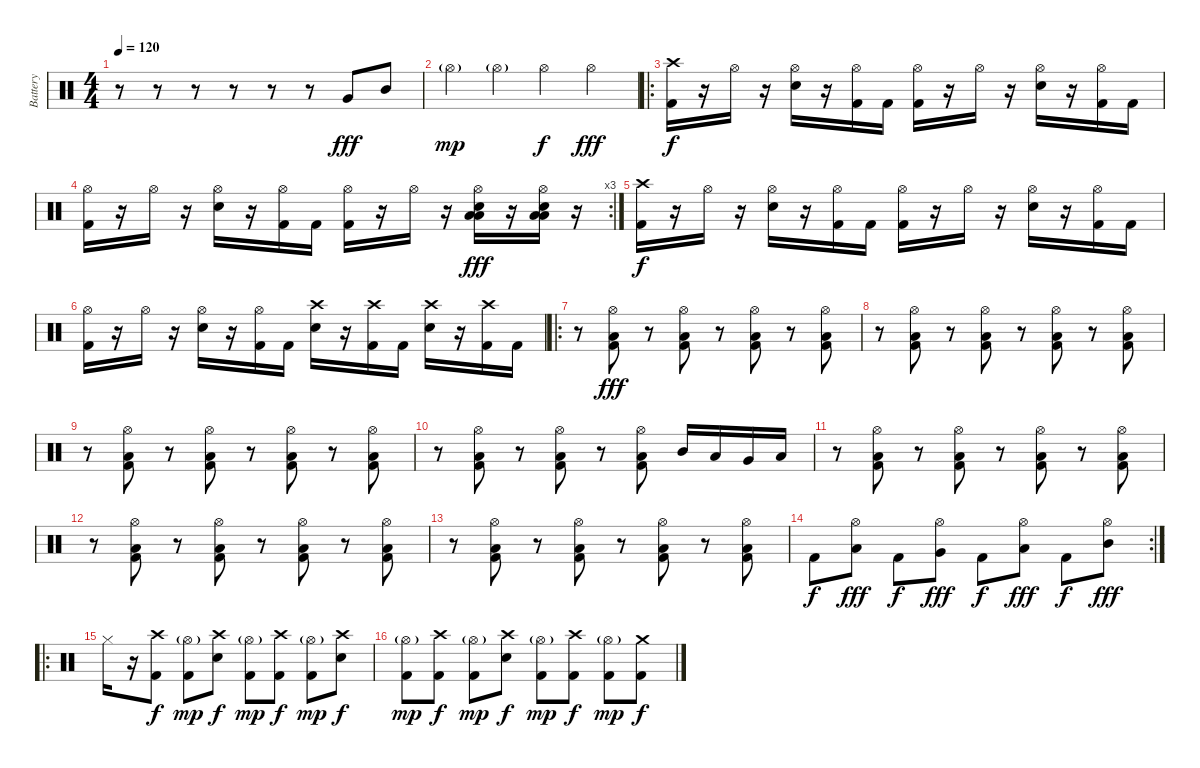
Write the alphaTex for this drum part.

\track ("Battery" "Battery") {instrument percussion}
\staff {score}
\articulation defaults
\ts (4 4)
\tempo 120
\clef neutral
\ks c
r.8{dy fff} r.8 r.8 r.8 r.8 r.8 "Very Low Tom (hit)".8 "Mid Tom (hit)".8 |
"Hi-Hat (open)"{g}.4{dy mp} "Hi-Hat (open)"{g}.4 "Hi-Hat (open)".4{dy f} "Hi-Hat (open)".4{dy fff} |
\ro
("Crash high (hit)" "Kick (hit) 2").16{dy f} r.16 "Hi-Hat (open)".16 r.16 ("Hi-Hat (open)" "Electric Snare (hit)").16 r.16 ("Hi-Hat (open)" "Kick (hit) 2").16 "Kick (hit) 2".16 ("Hi-Hat (open)" "Kick (hit) 2").16 r.16 "Hi-Hat (open)".16 r.16 ("Hi-Hat (open)" "Electric Snare (hit)").16 r.16 ("Hi-Hat (open)" "Kick (hit) 2").16 "Kick (hit) 2".16 |
\rc 3
("Hi-Hat (open)" "Kick (hit) 2").16 r.16 "Hi-Hat (open)".16 r.16 ("Hi-Hat (open)" "Electric Snare (hit)").16 r.16 ("Hi-Hat (open)" "Kick (hit) 2").16 "Kick (hit) 2".16 ("Hi-Hat (open)" "Kick (hit) 2").16 r.16 "Hi-Hat (open)".16 r.16 ("Hi-Hat (open)" "Low Tom (hit)" "Low Floor Tom (hit)" "Electric Snare (hit)").16{dy fff} r.16 ("Hi-Hat (open)" "Low Tom (hit)" "Low Floor Tom (hit)" "Electric Snare (hit)").16 r.16 |
("Crash high (hit)" "Kick (hit) 2").16{dy f} r.16 "Hi-Hat (open)".16 r.16 ("Hi-Hat (open)" "Electric Snare (hit)").16 r.16 ("Hi-Hat (open)" "Kick (hit) 2").16 "Kick (hit) 2".16 ("Hi-Hat (open)" "Kick (hit) 2").16 r.16 "Hi-Hat (open)".16 r.16 ("Hi-Hat (open)" "Electric Snare (hit)").16 r.16 ("Hi-Hat (open)" "Kick (hit) 2").16 "Kick (hit) 2".16 |
("Hi-Hat (open)" "Kick (hit) 2").16 r.16 "Hi-Hat (open)".16 r.16 ("Hi-Hat (open)" "Electric Snare (hit)").16 r.16 ("Hi-Hat (open)" "Kick (hit) 2").16 "Kick (hit) 2".16 ("Crash high (hit)" "Electric Snare (hit)").16 r.16 ("Crash high (hit)" "Kick (hit) 2").16 "Kick (hit) 2".16 ("Crash high (hit)" "Electric Snare (hit)").16 r.16 ("Crash high (hit)" "Kick (hit) 2").16 "Kick (hit) 2".16 |
\ro
r.8 ("Kick (hit) 2" "Low Floor Tom (hit)" "Hi-Hat (open)").8{dy fff} r.8 ("Kick (hit) 2" "Low Floor Tom (hit)" "Hi-Hat (open)").8 r.8 ("Kick (hit) 2" "Low Floor Tom (hit)" "Hi-Hat (open)").8 r.8 ("Kick (hit) 2" "Low Floor Tom (hit)" "Hi-Hat (open)").8 |
r.8 ("Kick (hit) 2" "Low Floor Tom (hit)" "Hi-Hat (open)").8 r.8 ("Kick (hit) 2" "Low Floor Tom (hit)" "Hi-Hat (open)").8 r.8 ("Kick (hit) 2" "Low Floor Tom (hit)" "Hi-Hat (open)").8 r.8 ("Kick (hit) 2" "Low Floor Tom (hit)" "Hi-Hat (open)").8 |
r.8 ("Kick (hit) 2" "Low Floor Tom (hit)" "Hi-Hat (open)").8 r.8 ("Kick (hit) 2" "Low Floor Tom (hit)" "Hi-Hat (open)").8 r.8 ("Kick (hit) 2" "Low Floor Tom (hit)" "Hi-Hat (open)").8 r.8 ("Kick (hit) 2" "Low Floor Tom (hit)" "Hi-Hat (open)").8 |
r.8 ("Kick (hit) 2" "Low Floor Tom (hit)" "Hi-Hat (open)").8 r.8 ("Kick (hit) 2" "Low Floor Tom (hit)" "Hi-Hat (open)").8 r.8 ("Kick (hit) 2" "Low Floor Tom (hit)" "Hi-Hat (open)").8 "Mid Tom (hit)".16 "Low Tom (hit)".16 "Very Low Tom (hit)".16 "Low Floor Tom (hit)".16 |
r.8 ("Kick (hit) 2" "Low Floor Tom (hit)" "Hi-Hat (open)").8 r.8 ("Kick (hit) 2" "Low Floor Tom (hit)" "Hi-Hat (open)").8 r.8 ("Kick (hit) 2" "Low Floor Tom (hit)" "Hi-Hat (open)").8 r.8 ("Kick (hit) 2" "Low Floor Tom (hit)" "Hi-Hat (open)").8 |
r.8 ("Kick (hit) 2" "Low Floor Tom (hit)" "Hi-Hat (open)").8 r.8 ("Kick (hit) 2" "Low Floor Tom (hit)" "Hi-Hat (open)").8 r.8 ("Kick (hit) 2" "Low Floor Tom (hit)" "Hi-Hat (open)").8 r.8 ("Kick (hit) 2" "Low Floor Tom (hit)" "Hi-Hat (open)").8 |
r.8 ("Kick (hit) 2" "Low Floor Tom (hit)" "Hi-Hat (open)").8 r.8 ("Kick (hit) 2" "Low Floor Tom (hit)" "Hi-Hat (open)").8 r.8 ("Kick (hit) 2" "Low Floor Tom (hit)" "Hi-Hat (open)").8 r.8 ("Kick (hit) 2" "Low Floor Tom (hit)" "Hi-Hat (open)").8 |
\rc 2 "Kick (hit) 2".8{dy f}
("Low Floor Tom (hit)" "Hi-Hat (open)").8{dy fff} "Kick (hit) 2".8{dy f} ("Very Low Tom (hit)" "Hi-Hat (open)").8{dy fff} "Kick (hit) 2".8{dy f} ("Low Tom (hit)" "Hi-Hat (open)").8{dy fff} "Kick (hit) 2".8{dy f} ("Mid Tom (hit)" "Hi-Hat (open)").8{dy fff} |
\ro "Hi-Hat (closed)".16
r.16 ("Crash high (hit)" "Kick (hit) 2").8{dy f} ("Hi-Hat (open)"{g} "Kick (hit) 2").8{dy mp} ("Crash high (hit)" "Snare (hit) 2").8{dy f} ("Hi-Hat (open)"{g} "Kick (hit) 2").8{dy mp} ("Crash high (hit)" "Kick (hit) 2").8{dy f} ("Hi-Hat (open)"{g} "Kick (hit) 2").8{dy mp} ("Crash high (hit)" "Snare (hit) 2").8{dy f} |
("Hi-Hat (open)"{g} "Kick (hit) 2").8{dy mp} ("Crash high (hit)" "Kick (hit) 2").8{dy f} ("Hi-Hat (open)"{g} "Kick (hit) 2").8{dy mp} ("Crash high (hit)" "Snare (hit) 2").8{dy f} ("Hi-Hat (open)"{g} "Kick (hit) 2").8{dy mp} ("Crash high (hit)" "Kick (hit) 2").8{dy f} ("Hi-Hat (open)"{g} "Kick (hit) 2").8{dy mp} ("Crash medium (hit)" "Kick (hit) 2").8{dy f}
